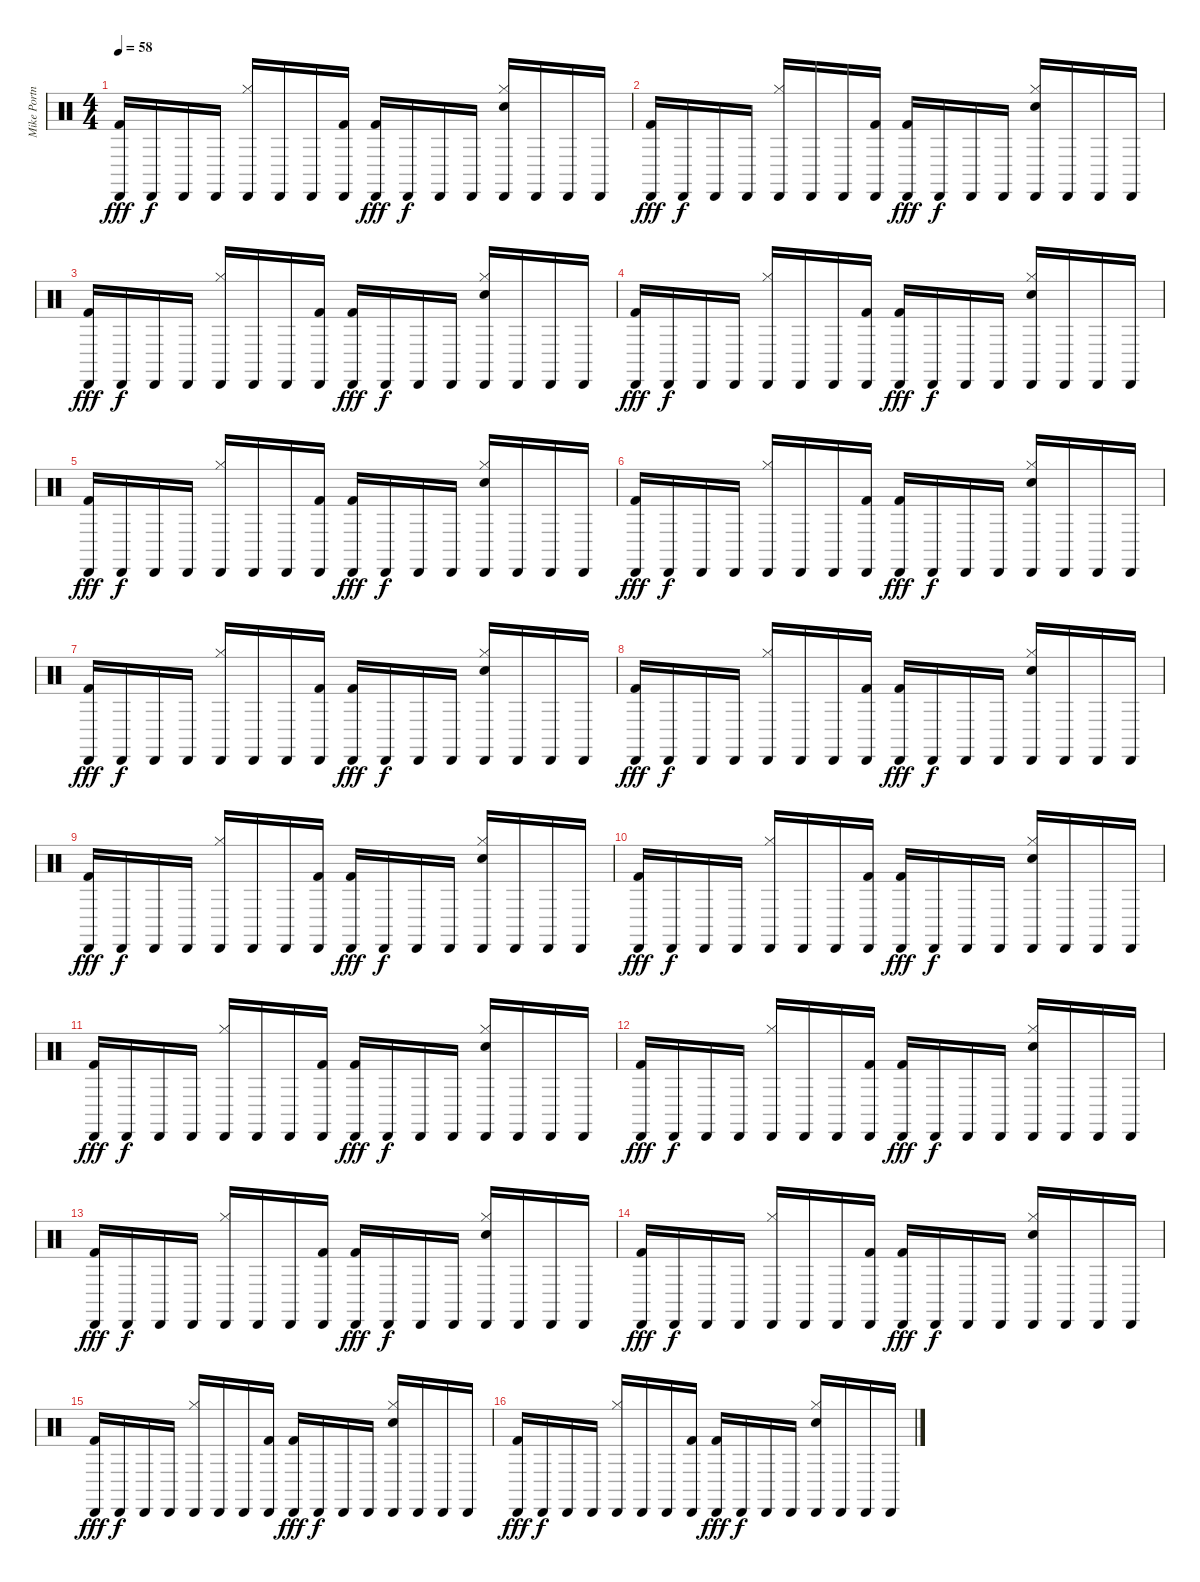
\track ("Mike Portnoy" "Mike Portn") {instrument percussion}
\staff {score}
\articulation defaults
\ts (4 4)
\tempo 58
\clef neutral
\ks c
("Cabasa (hit)" "Kick (hit) 2").16{dy fff} "Cabasa (hit)".16{dy f} "Cabasa (hit)".16 "Cabasa (hit)".16 ("Hi-Hat (closed)" "Cabasa (hit)").16 "Cabasa (hit)".16 "Cabasa (hit)".16 ("Cabasa (hit)" "Kick (hit) 2").16 ("Cabasa (hit)" "Kick (hit) 2").16{dy fff} "Cabasa (hit)".16{dy f} "Cabasa (hit)".16 "Cabasa (hit)".16 ("Hi-Hat (closed)" "Cabasa (hit)" "Snare (hit) 2").16 "Cabasa (hit)".16 "Cabasa (hit)".16 "Cabasa (hit)".16 |
("Cabasa (hit)" "Kick (hit) 2").16{dy fff} "Cabasa (hit)".16{dy f} "Cabasa (hit)".16 "Cabasa (hit)".16 ("Hi-Hat (closed)" "Cabasa (hit)").16 "Cabasa (hit)".16 "Cabasa (hit)".16 ("Cabasa (hit)" "Kick (hit) 2").16 ("Cabasa (hit)" "Kick (hit) 2").16{dy fff} "Cabasa (hit)".16{dy f} "Cabasa (hit)".16 "Cabasa (hit)".16 ("Hi-Hat (closed)" "Cabasa (hit)" "Snare (hit) 2").16 "Cabasa (hit)".16 "Cabasa (hit)".16 "Cabasa (hit)".16 |
("Cabasa (hit)" "Kick (hit) 2").16{dy fff} "Cabasa (hit)".16{dy f} "Cabasa (hit)".16 "Cabasa (hit)".16 ("Hi-Hat (closed)" "Cabasa (hit)").16 "Cabasa (hit)".16 "Cabasa (hit)".16 ("Cabasa (hit)" "Kick (hit) 2").16 ("Cabasa (hit)" "Kick (hit) 2").16{dy fff} "Cabasa (hit)".16{dy f} "Cabasa (hit)".16 "Cabasa (hit)".16 ("Hi-Hat (closed)" "Cabasa (hit)" "Snare (hit) 2").16 "Cabasa (hit)".16 "Cabasa (hit)".16 "Cabasa (hit)".16 |
("Cabasa (hit)" "Kick (hit) 2").16{dy fff} "Cabasa (hit)".16{dy f} "Cabasa (hit)".16 "Cabasa (hit)".16 ("Hi-Hat (closed)" "Cabasa (hit)").16 "Cabasa (hit)".16 "Cabasa (hit)".16 ("Cabasa (hit)" "Kick (hit) 2").16 ("Cabasa (hit)" "Kick (hit) 2").16{dy fff} "Cabasa (hit)".16{dy f} "Cabasa (hit)".16 "Cabasa (hit)".16 ("Hi-Hat (closed)" "Cabasa (hit)" "Snare (hit) 2").16 "Cabasa (hit)".16 "Cabasa (hit)".16 "Cabasa (hit)".16 |
("Cabasa (hit)" "Kick (hit) 2").16{dy fff} "Cabasa (hit)".16{dy f} "Cabasa (hit)".16 "Cabasa (hit)".16 ("Hi-Hat (closed)" "Cabasa (hit)").16 "Cabasa (hit)".16 "Cabasa (hit)".16 ("Cabasa (hit)" "Kick (hit) 2").16 ("Cabasa (hit)" "Kick (hit) 2").16{dy fff} "Cabasa (hit)".16{dy f} "Cabasa (hit)".16 "Cabasa (hit)".16 ("Hi-Hat (closed)" "Cabasa (hit)" "Snare (hit) 2").16 "Cabasa (hit)".16 "Cabasa (hit)".16 "Cabasa (hit)".16 |
("Cabasa (hit)" "Kick (hit) 2").16{dy fff} "Cabasa (hit)".16{dy f} "Cabasa (hit)".16 "Cabasa (hit)".16 ("Hi-Hat (closed)" "Cabasa (hit)").16 "Cabasa (hit)".16 "Cabasa (hit)".16 ("Cabasa (hit)" "Kick (hit) 2").16 ("Cabasa (hit)" "Kick (hit) 2").16{dy fff} "Cabasa (hit)".16{dy f} "Cabasa (hit)".16 "Cabasa (hit)".16 ("Hi-Hat (closed)" "Cabasa (hit)" "Snare (hit) 2").16 "Cabasa (hit)".16 "Cabasa (hit)".16 "Cabasa (hit)".16 |
("Cabasa (hit)" "Kick (hit) 2").16{dy fff} "Cabasa (hit)".16{dy f} "Cabasa (hit)".16 "Cabasa (hit)".16 ("Hi-Hat (closed)" "Cabasa (hit)").16 "Cabasa (hit)".16 "Cabasa (hit)".16 ("Cabasa (hit)" "Kick (hit) 2").16 ("Cabasa (hit)" "Kick (hit) 2").16{dy fff} "Cabasa (hit)".16{dy f} "Cabasa (hit)".16 "Cabasa (hit)".16 ("Hi-Hat (closed)" "Cabasa (hit)" "Snare (hit) 2").16 "Cabasa (hit)".16 "Cabasa (hit)".16 "Cabasa (hit)".16 |
("Cabasa (hit)" "Kick (hit) 2").16{dy fff} "Cabasa (hit)".16{dy f} "Cabasa (hit)".16 "Cabasa (hit)".16 ("Hi-Hat (closed)" "Cabasa (hit)").16 "Cabasa (hit)".16 "Cabasa (hit)".16 ("Cabasa (hit)" "Kick (hit) 2").16 ("Cabasa (hit)" "Kick (hit) 2").16{dy fff} "Cabasa (hit)".16{dy f} "Cabasa (hit)".16 "Cabasa (hit)".16 ("Hi-Hat (closed)" "Cabasa (hit)" "Snare (hit) 2").16 "Cabasa (hit)".16 "Cabasa (hit)".16 "Cabasa (hit)".16 |
("Cabasa (hit)" "Kick (hit) 2").16{dy fff} "Cabasa (hit)".16{dy f} "Cabasa (hit)".16 "Cabasa (hit)".16 ("Hi-Hat (closed)" "Cabasa (hit)").16 "Cabasa (hit)".16 "Cabasa (hit)".16 ("Cabasa (hit)" "Kick (hit) 2").16 ("Cabasa (hit)" "Kick (hit) 2").16{dy fff} "Cabasa (hit)".16{dy f} "Cabasa (hit)".16 "Cabasa (hit)".16 ("Hi-Hat (closed)" "Cabasa (hit)" "Snare (hit) 2").16 "Cabasa (hit)".16 "Cabasa (hit)".16 "Cabasa (hit)".16 |
("Cabasa (hit)" "Kick (hit) 2").16{dy fff} "Cabasa (hit)".16{dy f} "Cabasa (hit)".16 "Cabasa (hit)".16 ("Hi-Hat (closed)" "Cabasa (hit)").16 "Cabasa (hit)".16 "Cabasa (hit)".16 ("Cabasa (hit)" "Kick (hit) 2").16 ("Cabasa (hit)" "Kick (hit) 2").16{dy fff} "Cabasa (hit)".16{dy f} "Cabasa (hit)".16 "Cabasa (hit)".16 ("Hi-Hat (closed)" "Cabasa (hit)" "Snare (hit) 2").16 "Cabasa (hit)".16 "Cabasa (hit)".16 "Cabasa (hit)".16 |
("Cabasa (hit)" "Kick (hit) 2").16{dy fff} "Cabasa (hit)".16{dy f} "Cabasa (hit)".16 "Cabasa (hit)".16 ("Hi-Hat (closed)" "Cabasa (hit)").16 "Cabasa (hit)".16 "Cabasa (hit)".16 ("Cabasa (hit)" "Kick (hit) 2").16 ("Cabasa (hit)" "Kick (hit) 2").16{dy fff} "Cabasa (hit)".16{dy f} "Cabasa (hit)".16 "Cabasa (hit)".16 ("Hi-Hat (closed)" "Cabasa (hit)" "Snare (hit) 2").16 "Cabasa (hit)".16 "Cabasa (hit)".16 "Cabasa (hit)".16 |
("Cabasa (hit)" "Kick (hit) 2").16{dy fff} "Cabasa (hit)".16{dy f} "Cabasa (hit)".16 "Cabasa (hit)".16 ("Hi-Hat (closed)" "Cabasa (hit)").16 "Cabasa (hit)".16 "Cabasa (hit)".16 ("Cabasa (hit)" "Kick (hit) 2").16 ("Cabasa (hit)" "Kick (hit) 2").16{dy fff} "Cabasa (hit)".16{dy f} "Cabasa (hit)".16 "Cabasa (hit)".16 ("Hi-Hat (closed)" "Cabasa (hit)" "Snare (hit) 2").16 "Cabasa (hit)".16 "Cabasa (hit)".16 "Cabasa (hit)".16 |
("Cabasa (hit)" "Kick (hit) 2").16{dy fff} "Cabasa (hit)".16{dy f} "Cabasa (hit)".16 "Cabasa (hit)".16 ("Hi-Hat (closed)" "Cabasa (hit)").16 "Cabasa (hit)".16 "Cabasa (hit)".16 ("Cabasa (hit)" "Kick (hit) 2").16 ("Cabasa (hit)" "Kick (hit) 2").16{dy fff} "Cabasa (hit)".16{dy f} "Cabasa (hit)".16 "Cabasa (hit)".16 ("Hi-Hat (closed)" "Cabasa (hit)" "Snare (hit) 2").16 "Cabasa (hit)".16 "Cabasa (hit)".16 "Cabasa (hit)".16 |
("Cabasa (hit)" "Kick (hit) 2").16{dy fff} "Cabasa (hit)".16{dy f} "Cabasa (hit)".16 "Cabasa (hit)".16 ("Hi-Hat (closed)" "Cabasa (hit)").16 "Cabasa (hit)".16 "Cabasa (hit)".16 ("Cabasa (hit)" "Kick (hit) 2").16 ("Cabasa (hit)" "Kick (hit) 2").16{dy fff} "Cabasa (hit)".16{dy f} "Cabasa (hit)".16 "Cabasa (hit)".16 ("Hi-Hat (closed)" "Cabasa (hit)" "Snare (hit) 2").16 "Cabasa (hit)".16 "Cabasa (hit)".16 "Cabasa (hit)".16 |
("Cabasa (hit)" "Kick (hit) 2").16{dy fff} "Cabasa (hit)".16{dy f} "Cabasa (hit)".16 "Cabasa (hit)".16 ("Hi-Hat (closed)" "Cabasa (hit)").16 "Cabasa (hit)".16 "Cabasa (hit)".16 ("Cabasa (hit)" "Kick (hit) 2").16 ("Cabasa (hit)" "Kick (hit) 2").16{dy fff} "Cabasa (hit)".16{dy f} "Cabasa (hit)".16 "Cabasa (hit)".16 ("Hi-Hat (closed)" "Cabasa (hit)" "Snare (hit) 2").16 "Cabasa (hit)".16 "Cabasa (hit)".16 "Cabasa (hit)".16 |
("Cabasa (hit)" "Kick (hit) 2").16{dy fff} "Cabasa (hit)".16{dy f} "Cabasa (hit)".16 "Cabasa (hit)".16 ("Hi-Hat (closed)" "Cabasa (hit)").16 "Cabasa (hit)".16 "Cabasa (hit)".16 ("Cabasa (hit)" "Kick (hit) 2").16 ("Cabasa (hit)" "Kick (hit) 2").16{dy fff} "Cabasa (hit)".16{dy f} "Cabasa (hit)".16 "Cabasa (hit)".16 ("Hi-Hat (closed)" "Cabasa (hit)" "Snare (hit) 2").16 "Cabasa (hit)".16 "Cabasa (hit)".16 "Cabasa (hit)".16
